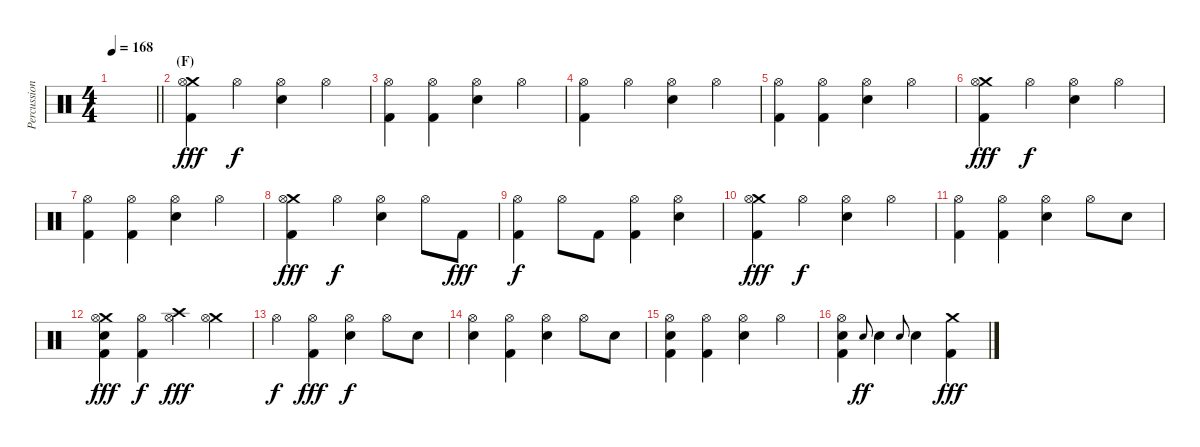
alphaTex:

\track ("Percussion" "Percussion") {instrument percussion}
\staff {score}
\articulation defaults
\ts (4 4)
\tempo 168
\clef neutral
\barLineRight lightlight
\ks c
|
\section ("" "(F)")
("Crash medium (hit)" "Hi-Hat (open)" "Kick (hit) 2").4{dy fff volume 13} "Hi-Hat (open)".4{dy f} ("Hi-Hat (open)" "Snare (hit) 2").4 "Hi-Hat (open)".4 |
("Hi-Hat (open)" "Kick (hit) 2").4 ("Hi-Hat (open)" "Kick (hit) 2").4 ("Hi-Hat (open)" "Snare (hit) 2").4 "Hi-Hat (open)".4 |
("Hi-Hat (open)" "Kick (hit) 2").4 "Hi-Hat (open)".4 ("Hi-Hat (open)" "Snare (hit) 2").4 "Hi-Hat (open)".4 |
("Hi-Hat (open)" "Kick (hit) 2").4 ("Hi-Hat (open)" "Kick (hit) 2").4 ("Hi-Hat (open)" "Snare (hit) 2").4 "Hi-Hat (open)".4 |
("Crash medium (hit)" "Hi-Hat (open)" "Kick (hit) 2").4{dy fff} "Hi-Hat (open)".4{dy f} ("Hi-Hat (open)" "Snare (hit) 2").4 "Hi-Hat (open)".4 |
("Hi-Hat (open)" "Kick (hit) 2").4 ("Hi-Hat (open)" "Kick (hit) 2").4 ("Hi-Hat (open)" "Snare (hit) 2").4 "Hi-Hat (open)".4 |
("Crash medium (hit)" "Hi-Hat (open)" "Kick (hit) 2").4{dy fff} "Hi-Hat (open)".4{dy f} ("Hi-Hat (open)" "Snare (hit) 2").4 "Hi-Hat (open)".8 "Kick (hit) 2".8{dy fff} |
("Hi-Hat (open)" "Kick (hit) 2").4{dy f} "Hi-Hat (open)".8 "Kick (hit) 2".8 ("Hi-Hat (open)" "Kick (hit) 2").4 ("Hi-Hat (open)" "Snare (hit) 2").4 |
("Crash medium (hit)" "Hi-Hat (open)" "Kick (hit) 2").4{dy fff} "Hi-Hat (open)".4{dy f} ("Hi-Hat (open)" "Snare (hit) 2").4 "Hi-Hat (open)".4 |
("Hi-Hat (open)" "Kick (hit) 2").4 ("Hi-Hat (open)" "Kick (hit) 2").4 ("Hi-Hat (open)" "Snare (hit) 2").4 "Hi-Hat (open)".8 "Snare (hit) 2".8 |
("Crash medium (hit)" "Hi-Hat (open)" "Snare (hit) 2" "Kick (hit) 2").4{dy fff} ("Hi-Hat (open)" "Kick (hit) 2").4{dy f} ("Crash high (hit)" "Hi-Hat (open)").4{dy fff} ("Crash medium (hit)" "Hi-Hat (open)").4 |
"Hi-Hat (open)".4{dy f} ("Hi-Hat (open)" "Kick (hit) 2").4{dy fff} ("Hi-Hat (open)" "Snare (hit) 2").4{dy f} "Hi-Hat (open)".8 "Snare (hit) 2".8 |
("Hi-Hat (open)" "Snare (hit) 2").4 ("Hi-Hat (open)" "Kick (hit) 2").4 ("Hi-Hat (open)" "Snare (hit) 2").4 "Hi-Hat (open)".8 "Snare (hit) 2".8 |
("Hi-Hat (open)" "Snare (hit) 2" "Kick (hit) 2").4 ("Hi-Hat (open)" "Kick (hit) 2").4 ("Hi-Hat (open)" "Snare (hit) 2").4 "Hi-Hat (open)".4 |
("Hi-Hat (open)" "Snare (hit) 2" "Kick (hit) 2").4 "Snare (hit) 2".8{gr onbeat dy ff} "Snare (hit) 2".4 "Snare (hit) 2".8{gr onbeat} "Snare (hit) 2".4 ("Crash medium (hit)" "Kick (hit) 2").4{dy fff}
